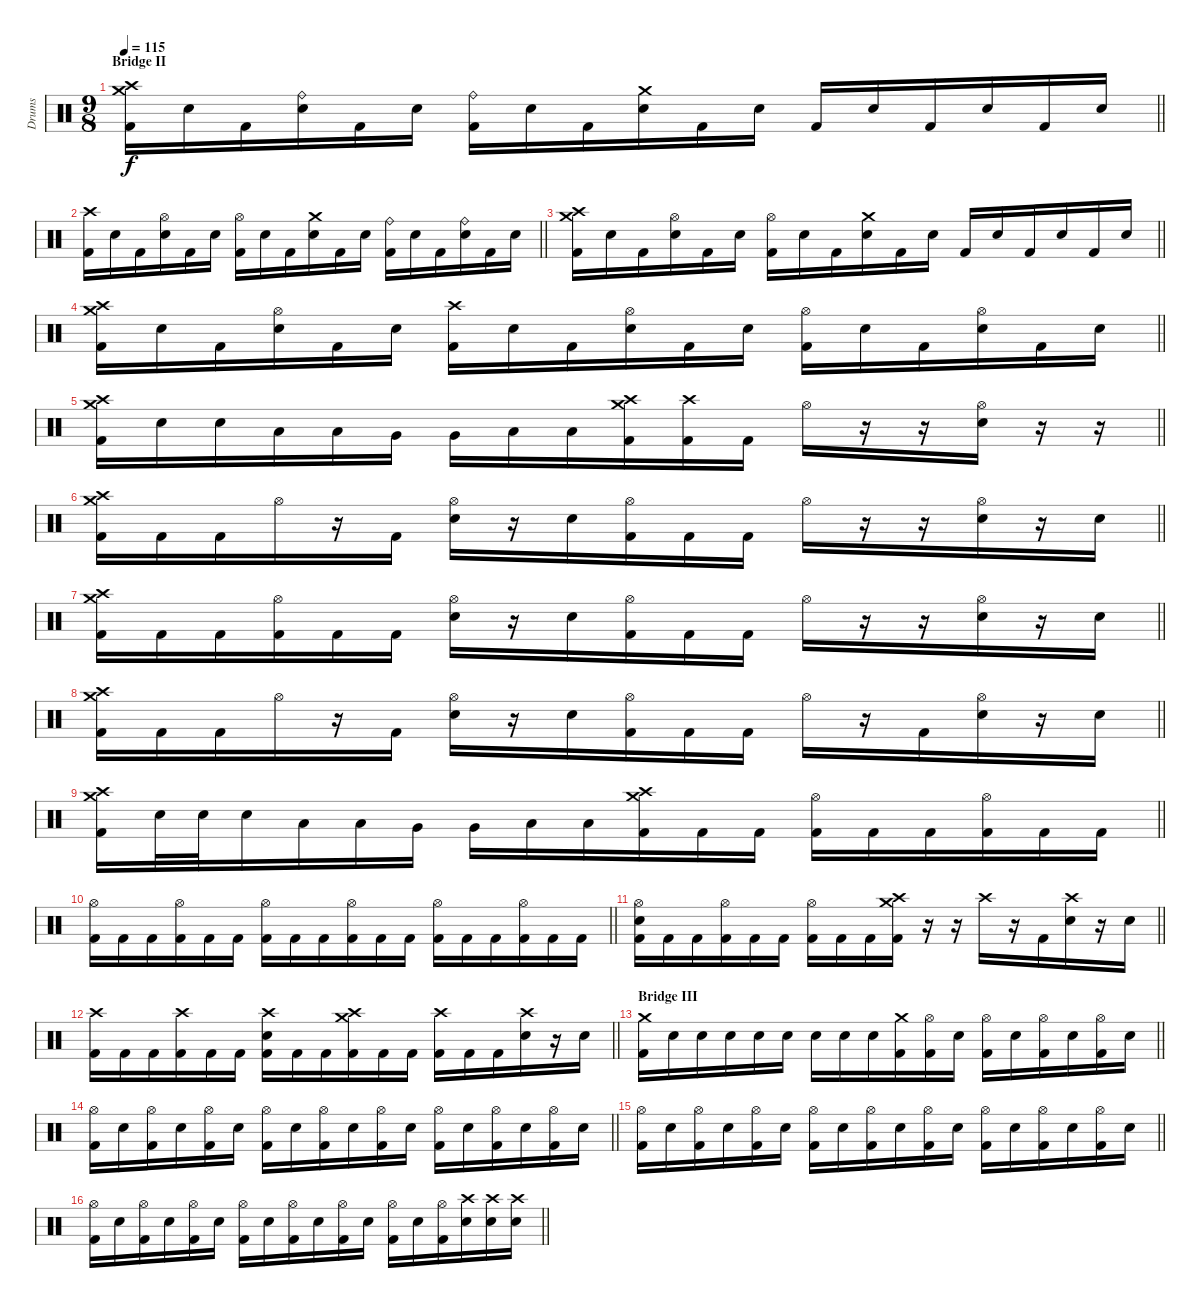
\track ("Drums" "Drums") {instrument percussion}
\staff {score}
\articulation defaults
\ts (9 8)
\section ("" "Bridge II")
\tempo 115
\clef neutral
\barLineRight lightlight
\ks c
("Crash medium (hit)" "Crash high (hit)" "Kick (hit) 2").16{dy f} "Snare (hit) 2".16 "Kick (hit) 2".16 ("Ride (bell)" "Snare (hit) 2").16 "Kick (hit) 2".16 "Snare (hit) 2".16 ("Ride (bell)" "Kick (hit) 2").16 "Snare (hit) 2".16 "Kick (hit) 2".16 ("Crash medium (hit)" "Snare (hit) 2").16 "Kick (hit) 2".16 "Snare (hit) 2".16 "Kick (hit) 2".16 "Snare (hit) 2".16 "Kick (hit) 2".16 "Snare (hit) 2".16 "Kick (hit) 2".16 "Snare (hit) 2".16 |
\barLineRight lightlight
("Crash high (hit)" "Kick (hit) 2").16 "Snare (hit) 2".16 "Kick (hit) 2".16 ("Hi-Hat (open)" "Snare (hit) 2").16 "Kick (hit) 2".16 "Snare (hit) 2".16 ("Hi-Hat (open)" "Kick (hit) 2").16 "Snare (hit) 2".16 "Kick (hit) 2".16 ("Crash medium (hit)" "Snare (hit) 2").16 "Kick (hit) 2".16 "Snare (hit) 2".16 ("Ride (bell)" "Kick (hit) 2").16 "Snare (hit) 2".16 "Kick (hit) 2".16 ("Ride (bell)" "Snare (hit) 2").16 "Kick (hit) 2".16 "Snare (hit) 2".16 |
\barLineRight lightlight
("Crash medium (hit)" "Crash high (hit)" "Kick (hit) 2").16 "Snare (hit) 2".16 "Kick (hit) 2".16 ("Hi-Hat (open)" "Snare (hit) 2").16 "Kick (hit) 2".16 "Snare (hit) 2".16 ("Hi-Hat (open)" "Kick (hit) 2").16 "Snare (hit) 2".16 "Kick (hit) 2".16 ("Crash medium (hit)" "Snare (hit) 2").16 "Kick (hit) 2".16 "Snare (hit) 2".16 "Kick (hit) 2".16 "Snare (hit) 2".16 "Kick (hit) 2".16 "Snare (hit) 2".16 "Kick (hit) 2".16 "Snare (hit) 2".16 |
\barLineRight lightlight
("Crash medium (hit)" "Crash high (hit)" "Kick (hit) 2").16 "Snare (hit) 2".16 "Kick (hit) 2".16 ("Hi-Hat (open)" "Snare (hit) 2").16 "Kick (hit) 2".16 "Snare (hit) 2".16 ("Crash high (hit)" "Kick (hit) 2").16 "Snare (hit) 2".16 "Kick (hit) 2".16 ("Hi-Hat (open)" "Snare (hit) 2").16 "Kick (hit) 2".16 "Snare (hit) 2".16 ("Hi-Hat (open)" "Kick (hit) 2").16 "Snare (hit) 2".16 "Kick (hit) 2".16 ("Hi-Hat (open)" "Snare (hit) 2").16 "Kick (hit) 2".16 "Snare (hit) 2".16 |
\barLineRight lightlight
("Crash medium (hit)" "Crash high (hit)" "Kick (hit) 2").16 "Snare (hit) 2".16 "Snare (hit) 2".16 "Low Tom (hit)".16 "Low Tom (hit)".16 "Very Low Tom (hit)".16 "Very Low Tom (hit)".16 "Low Floor Tom (hit)".16 "Low Floor Tom (hit)".16 ("Crash medium (hit)" "Crash high (hit)" "Kick (hit) 2").16 ("Crash high (hit)" "Kick (hit) 2").16 "Kick (hit) 2".16 "Hi-Hat (open)".16 r.16 r.16 ("Hi-Hat (open)" "Snare (hit) 2").16 r.16 r.16 |
\barLineRight lightlight
("Crash medium (hit)" "Crash high (hit)" "Kick (hit) 2").16 "Kick (hit) 2".16 "Kick (hit) 2".16 "Hi-Hat (open)".16 r.16 "Kick (hit) 2".16 ("Hi-Hat (open)" "Snare (hit) 2").16 r.16 "Snare (hit) 2".16 ("Hi-Hat (open)" "Kick (hit) 2").16 "Kick (hit) 2".16 "Kick (hit) 2".16 "Hi-Hat (open)".16 r.16 r.16 ("Hi-Hat (open)" "Snare (hit) 2").16 r.16 "Snare (hit) 2".16 |
\barLineRight lightlight
("Crash medium (hit)" "Crash high (hit)" "Kick (hit) 2").16 "Kick (hit) 2".16 "Kick (hit) 2".16 ("Hi-Hat (open)" "Kick (hit) 2").16 "Kick (hit) 2".16 "Kick (hit) 2".16 ("Hi-Hat (open)" "Snare (hit) 2").16 r.16 "Snare (hit) 2".16 ("Hi-Hat (open)" "Kick (hit) 2").16 "Kick (hit) 2".16 "Kick (hit) 2".16 "Hi-Hat (open)".16 r.16 r.16 ("Hi-Hat (open)" "Snare (hit) 2").16 r.16 "Snare (hit) 2".16 |
\barLineRight lightlight
("Crash medium (hit)" "Crash high (hit)" "Kick (hit) 2").16 "Kick (hit) 2".16 "Kick (hit) 2".16 "Hi-Hat (open)".16 r.16 "Kick (hit) 2".16 ("Hi-Hat (open)" "Snare (hit) 2").16 r.16 "Snare (hit) 2".16 ("Hi-Hat (open)" "Kick (hit) 2").16 "Kick (hit) 2".16 "Kick (hit) 2".16 "Hi-Hat (open)".16 r.16 "Kick (hit) 2".16 ("Hi-Hat (open)" "Snare (hit) 2").16 r.16 "Snare (hit) 2".16 |
\barLineRight lightlight
("Crash medium (hit)" "Crash high (hit)" "Kick (hit) 2").16 "Snare (hit) 2".32 "Snare (hit) 2".32 "Snare (hit) 2".16 "Low Tom (hit)".16 "Low Tom (hit)".16 "Very Low Tom (hit)".16 "Very Low Tom (hit)".16 "Low Floor Tom (hit)".16 "Low Floor Tom (hit)".16 ("Crash medium (hit)" "Crash high (hit)" "Kick (hit) 2").16 "Kick (hit) 2".16 "Kick (hit) 2".16 ("Hi-Hat (open)" "Kick (hit) 2").16 "Kick (hit) 2".16 "Kick (hit) 2".16 ("Hi-Hat (open)" "Kick (hit) 2").16 "Kick (hit) 2".16 "Kick (hit) 2".16 |
\barLineRight lightlight
("Hi-Hat (open)" "Kick (hit) 2").16 "Kick (hit) 2".16 "Kick (hit) 2".16 ("Hi-Hat (open)" "Kick (hit) 2").16 "Kick (hit) 2".16 "Kick (hit) 2".16 ("Hi-Hat (open)" "Kick (hit) 2").16 "Kick (hit) 2".16 "Kick (hit) 2".16 ("Hi-Hat (open)" "Kick (hit) 2").16 "Kick (hit) 2".16 "Kick (hit) 2".16 ("Hi-Hat (open)" "Kick (hit) 2").16 "Kick (hit) 2".16 "Kick (hit) 2".16 ("Hi-Hat (open)" "Kick (hit) 2").16 "Kick (hit) 2".16 "Kick (hit) 2".16 |
\barLineRight lightlight
("Hi-Hat (open)" "Snare (hit) 2" "Kick (hit) 2").16 "Kick (hit) 2".16 "Kick (hit) 2".16 ("Hi-Hat (open)" "Kick (hit) 2").16 "Kick (hit) 2".16 "Kick (hit) 2".16 ("Hi-Hat (open)" "Kick (hit) 2").16 "Kick (hit) 2".16 "Kick (hit) 2".16 ("Crash medium (hit)" "Crash high (hit)" "Kick (hit) 2").16 r.16 r.16 "Crash high (hit)".16 r.16 "Kick (hit) 2".16 ("Crash high (hit)" "Snare (hit) 2").16 r.16 "Snare (hit) 2".16 |
\barLineRight lightlight
("Crash high (hit)" "Kick (hit) 2").16 "Kick (hit) 2".16 "Kick (hit) 2".16 ("Crash high (hit)" "Kick (hit) 2").16 "Kick (hit) 2".16 "Kick (hit) 2".16 ("Crash high (hit)" "Snare (hit) 2" "Kick (hit) 2").16 "Kick (hit) 2".16 "Kick (hit) 2".16 ("Crash medium (hit)" "Crash high (hit)" "Kick (hit) 2").16 "Kick (hit) 2".16 "Kick (hit) 2".16 ("Crash high (hit)" "Kick (hit) 2").16 "Kick (hit) 2".16 "Kick (hit) 2".16 ("Crash high (hit)" "Snare (hit) 2").16 r.16 "Snare (hit) 2".16 |
\section ("" "Bridge III")
\barLineRight lightlight
("Crash medium (hit)" "Kick (hit) 2").16 "Snare (hit) 2".16 "Snare (hit) 2".16 "Snare (hit) 2".16 "Snare (hit) 2".16 "Snare (hit) 2".16 "Snare (hit) 2".16 "Snare (hit) 2".16 "Snare (hit) 2".16 ("Crash medium (hit)" "Kick (hit) 2").16 ("Hi-Hat (open)" "Kick (hit) 2").16 "Snare (hit) 2".16 ("Hi-Hat (open)" "Kick (hit) 2").16 "Snare (hit) 2".16 ("Hi-Hat (open)" "Kick (hit) 2").16 "Snare (hit) 2".16 ("Hi-Hat (open)" "Kick (hit) 2").16 "Snare (hit) 2".16 |
\barLineRight lightlight
("Hi-Hat (open)" "Kick (hit) 2").16 "Snare (hit) 2".16 ("Hi-Hat (open)" "Kick (hit) 2").16 "Snare (hit) 2".16 ("Hi-Hat (open)" "Kick (hit) 2").16 "Snare (hit) 2".16 ("Hi-Hat (open)" "Kick (hit) 2").16 "Snare (hit) 2".16 ("Hi-Hat (open)" "Kick (hit) 2").16 "Snare (hit) 2".16 ("Hi-Hat (open)" "Kick (hit) 2").16 "Snare (hit) 2".16 ("Hi-Hat (open)" "Kick (hit) 2").16 "Snare (hit) 2".16 ("Hi-Hat (open)" "Kick (hit) 2").16 "Snare (hit) 2".16 ("Hi-Hat (open)" "Kick (hit) 2").16 "Snare (hit) 2".16 |
\barLineRight lightlight
("Hi-Hat (open)" "Kick (hit) 2").16 "Snare (hit) 2".16 ("Hi-Hat (open)" "Kick (hit) 2").16 "Snare (hit) 2".16 ("Hi-Hat (open)" "Kick (hit) 2").16 "Snare (hit) 2".16 ("Hi-Hat (open)" "Kick (hit) 2").16 "Snare (hit) 2".16 ("Hi-Hat (open)" "Kick (hit) 2").16 "Snare (hit) 2".16 ("Hi-Hat (open)" "Kick (hit) 2").16 "Snare (hit) 2".16 ("Hi-Hat (open)" "Kick (hit) 2").16 "Snare (hit) 2".16 ("Hi-Hat (open)" "Kick (hit) 2").16 "Snare (hit) 2".16 ("Hi-Hat (open)" "Kick (hit) 2").16 "Snare (hit) 2".16 |
\barLineRight lightlight
("Hi-Hat (open)" "Kick (hit) 2").16 "Snare (hit) 2".16 ("Hi-Hat (open)" "Kick (hit) 2").16 "Snare (hit) 2".16 ("Hi-Hat (open)" "Kick (hit) 2").16 "Snare (hit) 2".16 ("Hi-Hat (open)" "Kick (hit) 2").16 "Snare (hit) 2".16 ("Hi-Hat (open)" "Kick (hit) 2").16 "Snare (hit) 2".16 ("Hi-Hat (open)" "Kick (hit) 2").16 "Snare (hit) 2".16 ("Hi-Hat (open)" "Kick (hit) 2").16 "Snare (hit) 2".16 ("Hi-Hat (open)" "Kick (hit) 2").16 ("Crash high (hit)" "Snare (hit) 2").16 ("Crash high (hit)" "Snare (hit) 2").16 ("Crash high (hit)" "Snare (hit) 2").16
